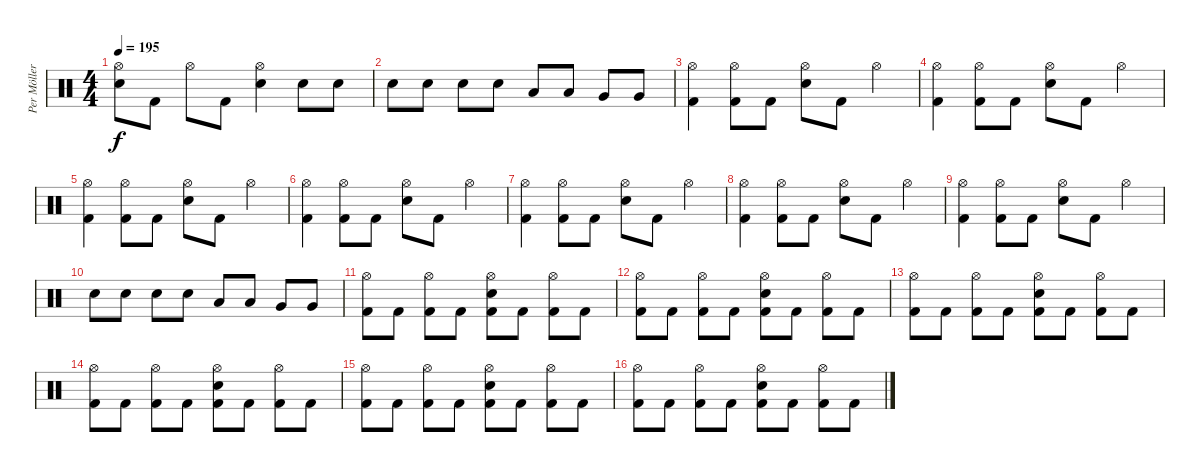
\track ("Per Möller Jensen" "Per Möller") {instrument percussion}
\staff {score}
\articulation defaults
\ts (4 4)
\tempo 195
\clef neutral
\ks c
("Hi-Hat (open)" "Snare (hit) 2").8{dy f} "Kick (hit) 2".8 "Hi-Hat (open)".8 "Kick (hit) 2".8 ("Hi-Hat (open)" "Snare (hit) 2").4 "Snare (hit) 2".8 "Snare (hit) 2".8 |
"Snare (hit) 2".8 "Snare (hit) 2".8 "Snare (hit) 2".8 "Snare (hit) 2".8 "Low Tom (hit)".8 "Low Tom (hit)".8 "Very Low Tom (hit)".8 "Very Low Tom (hit)".8 |
("Hi-Hat (open)" "Kick (hit) 2").4 ("Hi-Hat (open)" "Kick (hit) 2").8 "Kick (hit) 2".8 ("Hi-Hat (open)" "Snare (hit) 2").8 "Kick (hit) 2".8 "Hi-Hat (open)".4 |
("Hi-Hat (open)" "Kick (hit) 2").4 ("Hi-Hat (open)" "Kick (hit) 2").8 "Kick (hit) 2".8 ("Hi-Hat (open)" "Snare (hit) 2").8 "Kick (hit) 2".8 "Hi-Hat (open)".4 |
("Hi-Hat (open)" "Kick (hit) 2").4 ("Hi-Hat (open)" "Kick (hit) 2").8 "Kick (hit) 2".8 ("Hi-Hat (open)" "Snare (hit) 2").8 "Kick (hit) 2".8 "Hi-Hat (open)".4 |
("Hi-Hat (open)" "Kick (hit) 2").4 ("Hi-Hat (open)" "Kick (hit) 2").8 "Kick (hit) 2".8 ("Hi-Hat (open)" "Snare (hit) 2").8 "Kick (hit) 2".8 "Hi-Hat (open)".4 |
("Hi-Hat (open)" "Kick (hit) 2").4 ("Hi-Hat (open)" "Kick (hit) 2").8 "Kick (hit) 2".8 ("Hi-Hat (open)" "Snare (hit) 2").8 "Kick (hit) 2".8 "Hi-Hat (open)".4 |
("Hi-Hat (open)" "Kick (hit) 2").4 ("Hi-Hat (open)" "Kick (hit) 2").8 "Kick (hit) 2".8 ("Hi-Hat (open)" "Snare (hit) 2").8 "Kick (hit) 2".8 "Hi-Hat (open)".4 |
("Hi-Hat (open)" "Kick (hit) 2").4 ("Hi-Hat (open)" "Kick (hit) 2").8 "Kick (hit) 2".8 ("Hi-Hat (open)" "Snare (hit) 2").8 "Kick (hit) 2".8 "Hi-Hat (open)".4 |
"Snare (hit) 2".8 "Snare (hit) 2".8 "Snare (hit) 2".8 "Snare (hit) 2".8 "Low Tom (hit)".8 "Low Tom (hit)".8 "Very Low Tom (hit)".8 "Very Low Tom (hit)".8 |
("Hi-Hat (open)" "Kick (hit) 2").8 "Kick (hit) 2".8 ("Hi-Hat (open)" "Kick (hit) 2").8 "Kick (hit) 2".8 ("Hi-Hat (open)" "Snare (hit) 2" "Kick (hit) 2").8 "Kick (hit) 2".8 ("Hi-Hat (open)" "Kick (hit) 2").8 "Kick (hit) 2".8 |
("Hi-Hat (open)" "Kick (hit) 2").8 "Kick (hit) 2".8 ("Hi-Hat (open)" "Kick (hit) 2").8 "Kick (hit) 2".8 ("Hi-Hat (open)" "Snare (hit) 2" "Kick (hit) 2").8 "Kick (hit) 2".8 ("Hi-Hat (open)" "Kick (hit) 2").8 "Kick (hit) 2".8 |
("Hi-Hat (open)" "Kick (hit) 2").8 "Kick (hit) 2".8 ("Hi-Hat (open)" "Kick (hit) 2").8 "Kick (hit) 2".8 ("Hi-Hat (open)" "Snare (hit) 2" "Kick (hit) 2").8 "Kick (hit) 2".8 ("Hi-Hat (open)" "Kick (hit) 2").8 "Kick (hit) 2".8 |
("Hi-Hat (open)" "Kick (hit) 2").8 "Kick (hit) 2".8 ("Hi-Hat (open)" "Kick (hit) 2").8 "Kick (hit) 2".8 ("Hi-Hat (open)" "Snare (hit) 2" "Kick (hit) 2").8 "Kick (hit) 2".8 ("Hi-Hat (open)" "Kick (hit) 2").8 "Kick (hit) 2".8 |
("Hi-Hat (open)" "Kick (hit) 2").8 "Kick (hit) 2".8 ("Hi-Hat (open)" "Kick (hit) 2").8 "Kick (hit) 2".8 ("Hi-Hat (open)" "Snare (hit) 2" "Kick (hit) 2").8 "Kick (hit) 2".8 ("Hi-Hat (open)" "Kick (hit) 2").8 "Kick (hit) 2".8 |
("Hi-Hat (open)" "Kick (hit) 2").8 "Kick (hit) 2".8 ("Hi-Hat (open)" "Kick (hit) 2").8 "Kick (hit) 2".8 ("Hi-Hat (open)" "Snare (hit) 2" "Kick (hit) 2").8 "Kick (hit) 2".8 ("Hi-Hat (open)" "Kick (hit) 2").8 "Kick (hit) 2".8
